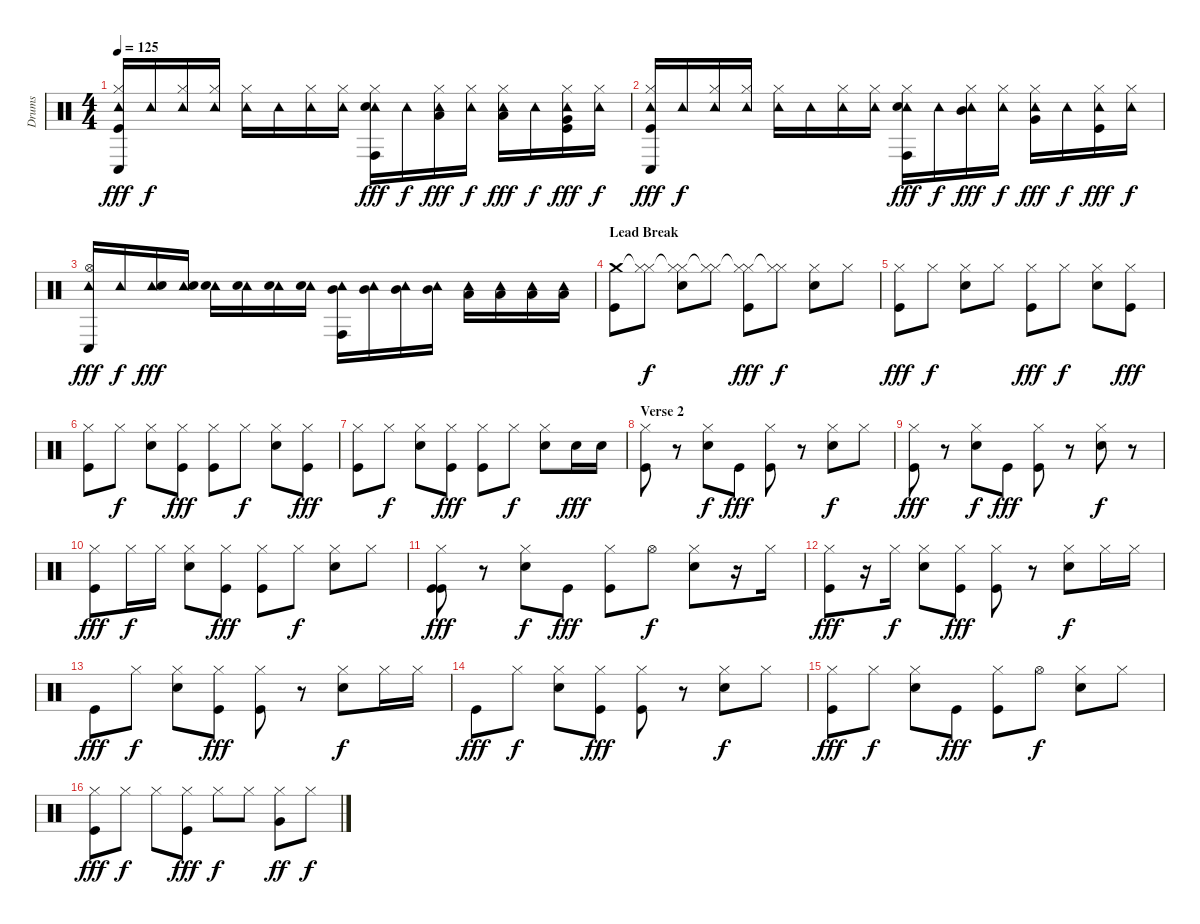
\track ("Drums" "Drums") {instrument percussion}
\staff {score}
\articulation defaults
\ts (4 4)
\tempo 125
\clef neutral
\ks c
("Conga low (hit)" "Tambourine (hit)" "Hi-Hat (closed)" "Kick (hit)").16{dy fff} "Tambourine (hit)".16{dy f} ("Tambourine (hit)" "Hi-Hat (closed)").16 ("Tambourine (hit)" "Hi-Hat (closed)").16 ("Tambourine (hit)" "Hi-Hat (closed)").16 "Tambourine (hit)".16 ("Tambourine (hit)" "Hi-Hat (closed)").16 ("Tambourine (hit)" "Hi-Hat (closed)").16 ("Conga high (hit)" "Tambourine (hit)" "Hi-Hat (closed)" "Snare (hit) 2").16{dy fff} "Tambourine (hit)".16{dy f} ("Tambourine (hit)" "Hi-Hat (closed)" "Low Tom (hit)").16{dy fff} ("Tambourine (hit)" "Hi-Hat (closed)").16{dy f} ("Tambourine (hit)" "Hi-Hat (closed)" "Low Tom (hit)").16{dy fff} "Tambourine (hit)".16{dy f} ("Tambourine (hit)" "Hi-Hat (closed)" "Very Low Tom (hit)" "Kick (hit)").16{dy fff} ("Tambourine (hit)" "Hi-Hat (closed)").16{dy f} |
("Conga low (hit)" "Tambourine (hit)" "Hi-Hat (closed)" "Kick (hit)").16{dy fff} "Tambourine (hit)".16{dy f} ("Tambourine (hit)" "Hi-Hat (closed)").16 ("Tambourine (hit)" "Hi-Hat (closed)").16 ("Tambourine (hit)" "Hi-Hat (closed)").16 "Tambourine (hit)".16 ("Tambourine (hit)" "Hi-Hat (closed)").16 ("Tambourine (hit)" "Hi-Hat (closed)").16 ("Conga high (hit)" "Tambourine (hit)" "Hi-Hat (closed)" "Snare (hit) 2").16{dy fff} "Tambourine (hit)".16{dy f} ("Tambourine (hit)" "Hi-Hat (closed)" "Mid Tom (hit)").16{dy fff} ("Tambourine (hit)" "Hi-Hat (closed)").16{dy f} ("Tambourine (hit)" "Hi-Hat (closed)" "Very Low Tom (hit)").16{dy fff} "Tambourine (hit)".16{dy f} ("Tambourine (hit)" "Hi-Hat (closed)" "Kick (hit)").16{dy fff} ("Tambourine (hit)" "Hi-Hat (closed)").16{dy f} |
("Tambourine (hit)" "Conga low (hit)" "Hi-Hat (open)").16{dy fff} "Tambourine (hit)".16{dy f} ("Tambourine (hit)" "Electric Snare (hit)").16{dy fff} ("Tambourine (hit)" "Electric Snare (hit)").16 ("Tambourine (hit)" "Electric Snare (hit)").16 ("Tambourine (hit)" "Electric Snare (hit)").16 ("Tambourine (hit)" "Electric Snare (hit)").16 ("Tambourine (hit)" "Electric Snare (hit)").16 ("Tambourine (hit)" "Conga high (hit)" "Mid Tom (hit)").16 ("Tambourine (hit)" "Mid Tom (hit)").16 ("Tambourine (hit)" "Mid Tom (hit)").16 ("Tambourine (hit)" "Mid Tom (hit)").16 ("Tambourine (hit)" "Low Tom (hit)").16 ("Tambourine (hit)" "Low Tom (hit)").16 ("Tambourine (hit)" "Low Tom (hit)").16 ("Tambourine (hit)" "Low Tom (hit)").16 |
\section ("" "Lead Break")
("Crash medium (hit)" "Kick (hit)").8 ("Hi-Hat (closed)"{t} "Hi-Hat (closed)").8{dy f} ("Hi-Hat (closed)"{t} "Hi-Hat (closed)" "Snare (hit) 2").8 ("Hi-Hat (closed)"{t} "Hi-Hat (closed)").8 ("Hi-Hat (closed)"{t} "Hi-Hat (closed)" "Kick (hit)").8{dy fff} ("Hi-Hat (closed)"{t} "Hi-Hat (closed)").8{dy f} ("Hi-Hat (closed)" "Snare (hit) 2").8 "Hi-Hat (closed)".8 |
("Hi-Hat (closed)" "Kick (hit)").8{dy fff} "Hi-Hat (closed)".8{dy f} ("Hi-Hat (closed)" "Snare (hit) 2").8 "Hi-Hat (closed)".8 ("Hi-Hat (closed)" "Kick (hit)").8{dy fff} "Hi-Hat (closed)".8{dy f} ("Hi-Hat (closed)" "Snare (hit) 2").8 ("Hi-Hat (closed)" "Kick (hit)").8{dy fff} |
("Hi-Hat (closed)" "Kick (hit)").8 "Hi-Hat (closed)".8{dy f} ("Hi-Hat (closed)" "Snare (hit) 2").8 ("Hi-Hat (closed)" "Kick (hit)").8{dy fff} ("Hi-Hat (closed)" "Kick (hit)").8 "Hi-Hat (closed)".8{dy f} ("Hi-Hat (closed)" "Snare (hit) 2").8 ("Hi-Hat (closed)" "Kick (hit)").8{dy fff} |
("Hi-Hat (closed)" "Kick (hit)").8 "Hi-Hat (closed)".8{dy f} ("Hi-Hat (closed)" "Snare (hit) 2").8 ("Hi-Hat (closed)" "Kick (hit)").8{dy fff} ("Hi-Hat (closed)" "Kick (hit)").8 "Hi-Hat (closed)".8{dy f} ("Hi-Hat (closed)" "Snare (hit) 2").8 "Snare (hit) 2".16{dy fff} "Snare (hit) 2".16 |
\section ("" "Verse 2")
("Hi-Hat (closed)" "Kick (hit)").8 r.8 ("Hi-Hat (closed)" "Snare (hit) 2").8{dy f} "Kick (hit)".8{dy fff} ("Hi-Hat (closed)" "Kick (hit)").8 r.8 ("Hi-Hat (closed)" "Snare (hit) 2").8{dy f} "Hi-Hat (closed)".8 |
("Hi-Hat (closed)" "Kick (hit)").8{dy fff} r.8 ("Hi-Hat (closed)" "Snare (hit) 2").8{dy f} "Kick (hit)".8{dy fff} ("Hi-Hat (closed)" "Kick (hit)").8 r.8 ("Hi-Hat (closed)" "Snare (hit) 2").8{dy f} r.8 |
("Hi-Hat (closed)" "Kick (hit)").8{dy fff} "Hi-Hat (closed)".16{dy f} "Hi-Hat (closed)".16 ("Hi-Hat (closed)" "Snare (hit) 2").8 ("Hi-Hat (closed)" "Kick (hit)").8{dy fff} ("Hi-Hat (closed)" "Kick (hit)").8 "Hi-Hat (closed)".8{dy f} ("Hi-Hat (closed)" "Snare (hit) 2").8 "Hi-Hat (closed)".8 |
("Hi-Hat (closed)" "Kick (hit)" "Kick (hit)").8{dy fff} r.8 ("Hi-Hat (closed)" "Snare (hit) 2").8{dy f} "Kick (hit)".8{dy fff} ("Hi-Hat (closed)" "Kick (hit)").8 "Hi-Hat (open)".8{dy f} ("Hi-Hat (closed)" "Snare (hit) 2").8 r.16 "Hi-Hat (closed)".16 |
("Hi-Hat (closed)" "Kick (hit)").8{dy fff} r.16 "Hi-Hat (closed)".16{dy f} ("Hi-Hat (closed)" "Snare (hit) 2").8 ("Hi-Hat (closed)" "Kick (hit)").8{dy fff} ("Hi-Hat (closed)" "Kick (hit)").8 r.8 ("Hi-Hat (closed)" "Snare (hit) 2").8{dy f} "Hi-Hat (closed)".16 "Hi-Hat (closed)".16 |
"Kick (hit)".8{dy fff} "Hi-Hat (closed)".8{dy f} ("Hi-Hat (closed)" "Snare (hit) 2").8 ("Hi-Hat (closed)" "Kick (hit)").8{dy fff} ("Hi-Hat (closed)" "Kick (hit)").8 r.8 ("Hi-Hat (closed)" "Snare (hit) 2").8{dy f} "Hi-Hat (closed)".16 "Hi-Hat (closed)".16 |
"Kick (hit)".8{dy fff} "Hi-Hat (closed)".8{dy f} ("Hi-Hat (closed)" "Snare (hit) 2").8 ("Hi-Hat (closed)" "Kick (hit)").8{dy fff} ("Hi-Hat (closed)" "Kick (hit)").8 r.8 ("Hi-Hat (closed)" "Snare (hit) 2").8{dy f} "Hi-Hat (closed)".8 |
("Hi-Hat (closed)" "Kick (hit)").8{dy fff} "Hi-Hat (closed)".8{dy f} ("Hi-Hat (closed)" "Snare (hit) 2").8 "Kick (hit)".8{dy fff} ("Hi-Hat (closed)" "Kick (hit)").8 "Hi-Hat (open)".8{dy f} ("Hi-Hat (closed)" "Snare (hit) 2").8 "Hi-Hat (closed)".8 |
("Hi-Hat (closed)" "Kick (hit)").8{dy fff} "Hi-Hat (closed)".8{dy f} "Hi-Hat (closed)".8 ("Hi-Hat (closed)" "Kick (hit)").8{dy fff} "Hi-Hat (closed)".8{dy f} "Hi-Hat (closed)".8 ("Hi-Hat (closed)" "Very Low Tom (hit)").8{dy ff} "Hi-Hat (closed)".8{dy f}
